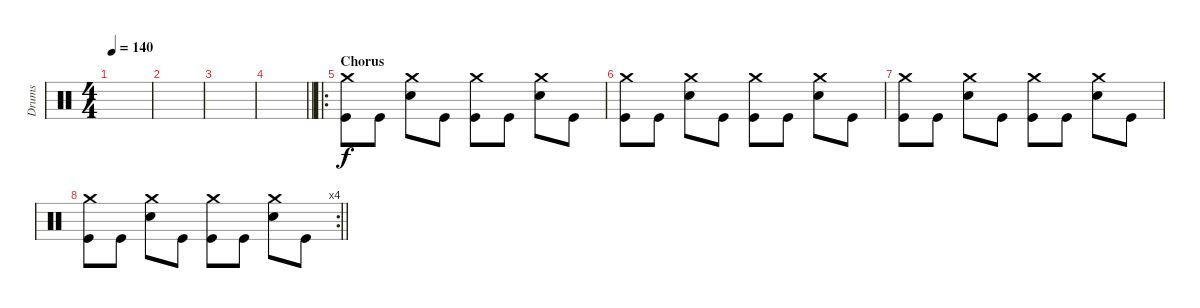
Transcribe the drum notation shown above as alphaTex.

\track ("Drums" "Drums") {instrument percussion}
\staff {score}
\articulation defaults
\ts (4 4)
\tempo 140
\clef neutral
\ks c
|
|
|
\barLineRight lightlight
|
\ro
\section ("" "Chorus")
("Crash medium (hit)" "Kick (hit)").8 "Kick (hit)".8 ("Crash medium (hit)" "Snare (hit) 2").8 "Kick (hit)".8 ("Crash medium (hit)" "Kick (hit)").8 "Kick (hit)".8 ("Crash medium (hit)" "Snare (hit) 2").8 "Kick (hit)".8 |
("Crash medium (hit)" "Kick (hit)").8 "Kick (hit)".8 ("Crash medium (hit)" "Snare (hit) 2").8 "Kick (hit)".8 ("Crash medium (hit)" "Kick (hit)").8 "Kick (hit)".8 ("Crash medium (hit)" "Snare (hit) 2").8 "Kick (hit)".8 |
("Crash medium (hit)" "Kick (hit)").8 "Kick (hit)".8 ("Crash medium (hit)" "Snare (hit) 2").8 "Kick (hit)".8 ("Crash medium (hit)" "Kick (hit)").8 "Kick (hit)".8 ("Crash medium (hit)" "Snare (hit) 2").8 "Kick (hit)".8 |
\rc 4
\barLineRight lightlight
("Crash medium (hit)" "Kick (hit)").8 "Kick (hit)".8 ("Crash medium (hit)" "Snare (hit) 2").8 "Kick (hit)".8 ("Crash medium (hit)" "Kick (hit)").8 "Kick (hit)".8 ("Crash medium (hit)" "Snare (hit) 2").8 "Kick (hit)".8
